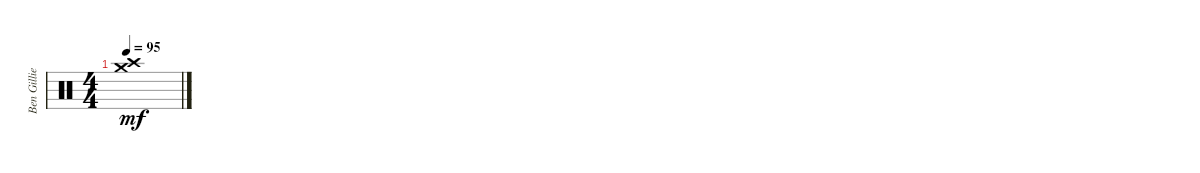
\track ("Ben Gillies" "Ben Gillie") {instrument percussion}
\staff {score}
\articulation defaults
\ts (4 4)
\tempo 95
\clef neutral
\ks c
("Crash high (hit)" "Crash medium (hit)").1{dy mf}
